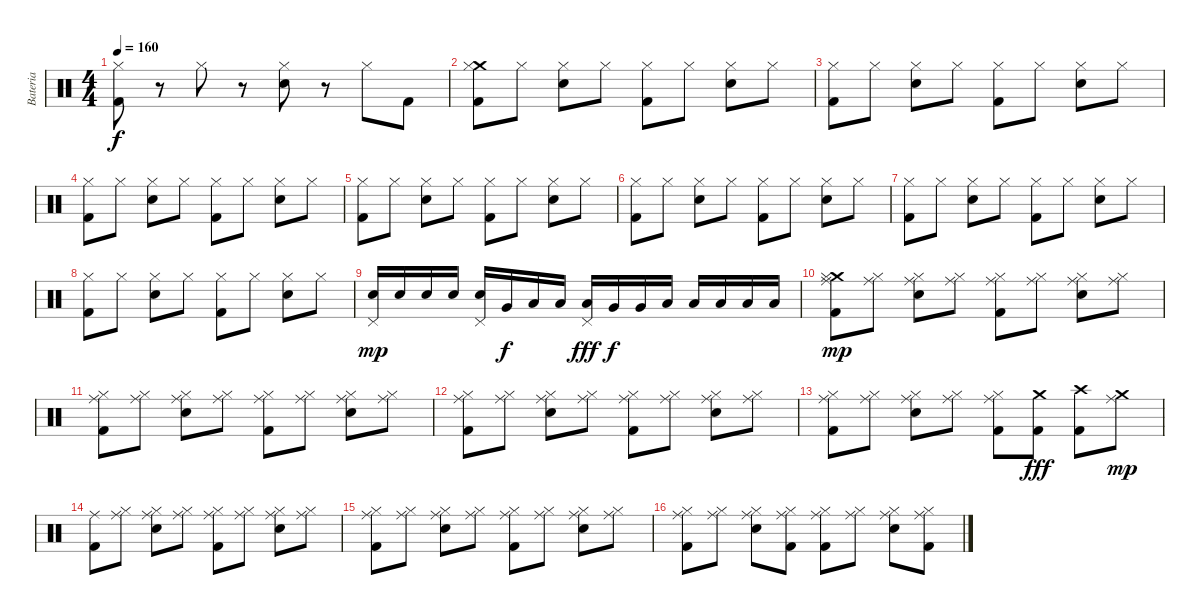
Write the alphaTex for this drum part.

\track ("Bateria" "Bateria") {instrument percussion}
\staff {score}
\articulation defaults
\ts (4 4)
\tempo 160
\clef neutral
\ks c
("Hi-Hat (closed)" "Kick (hit) 2").8{dy f} r.8 "Hi-Hat (closed)".8 r.8 ("Hi-Hat (closed)" "Electric Snare (hit)").8 r.8 "Hi-Hat (closed)".8 "Kick (hit) 2".8 |
("Crash medium (hit)" "Hi-Hat (closed)" "Kick (hit) 2").8 "Hi-Hat (closed)".8 ("Hi-Hat (closed)" "Electric Snare (hit)").8 "Hi-Hat (closed)".8 ("Hi-Hat (closed)" "Kick (hit) 2").8 "Hi-Hat (closed)".8 ("Hi-Hat (closed)" "Electric Snare (hit)").8 "Hi-Hat (closed)".8 |
("Hi-Hat (closed)" "Kick (hit) 2").8 "Hi-Hat (closed)".8 ("Hi-Hat (closed)" "Electric Snare (hit)").8 "Hi-Hat (closed)".8 ("Hi-Hat (closed)" "Kick (hit) 2").8 "Hi-Hat (closed)".8 ("Hi-Hat (closed)" "Electric Snare (hit)").8 "Hi-Hat (closed)".8 |
("Hi-Hat (closed)" "Kick (hit) 2").8 "Hi-Hat (closed)".8 ("Hi-Hat (closed)" "Electric Snare (hit)").8 "Hi-Hat (closed)".8 ("Hi-Hat (closed)" "Kick (hit) 2").8 "Hi-Hat (closed)".8 ("Hi-Hat (closed)" "Electric Snare (hit)").8 "Hi-Hat (closed)".8 |
("Hi-Hat (closed)" "Kick (hit) 2").8 "Hi-Hat (closed)".8 ("Hi-Hat (closed)" "Electric Snare (hit)").8 "Hi-Hat (closed)".8 ("Hi-Hat (closed)" "Kick (hit) 2").8 "Hi-Hat (closed)".8 ("Hi-Hat (closed)" "Electric Snare (hit)").8 "Hi-Hat (closed)".8 |
("Hi-Hat (closed)" "Kick (hit) 2").8 "Hi-Hat (closed)".8 ("Hi-Hat (closed)" "Electric Snare (hit)").8 "Hi-Hat (closed)".8 ("Hi-Hat (closed)" "Kick (hit) 2").8 "Hi-Hat (closed)".8 ("Hi-Hat (closed)" "Electric Snare (hit)").8 "Hi-Hat (closed)".8 |
("Hi-Hat (closed)" "Kick (hit) 2").8 "Hi-Hat (closed)".8 ("Hi-Hat (closed)" "Electric Snare (hit)").8 "Hi-Hat (closed)".8 ("Hi-Hat (closed)" "Kick (hit) 2").8 "Hi-Hat (closed)".8 ("Hi-Hat (closed)" "Electric Snare (hit)").8 "Hi-Hat (closed)".8 |
("Hi-Hat (closed)" "Kick (hit) 2").8 "Hi-Hat (closed)".8 ("Hi-Hat (closed)" "Electric Snare (hit)").8 "Hi-Hat (closed)".8 ("Hi-Hat (closed)" "Kick (hit) 2").8 "Hi-Hat (closed)".8 ("Hi-Hat (closed)" "Electric Snare (hit)").8 "Hi-Hat (closed)".8 |
("Pedal Hi-Hat (hit)" "Electric Snare (hit)").16{dy mp} "Electric Snare (hit)".16 "Electric Snare (hit)".16 "Electric Snare (hit)".16 ("Pedal Hi-Hat (hit)" "Electric Snare (hit)").16 "Very Low Tom (hit)".16{dy f} "Low Tom (hit)".16 "Low Tom (hit)".16 ("Pedal Hi-Hat (hit)" "Low Tom (hit)").16{dy fff} "Very Low Tom (hit)".16{dy f} "Very Low Tom (hit)".16 "Low Floor Tom (hit)".16 "Low Floor Tom (hit)".16 "Low Floor Tom (hit)".16 "Low Floor Tom (hit)".16 "Low Floor Tom (hit)".16 |
("Crash medium (hit)" "Hi-Hat (closed)" "Kick (hit) 2" "Ride (middle)").8{dy mp} ("Hi-Hat (closed)" "Ride (middle)").8 ("Hi-Hat (closed)" "Electric Snare (hit)" "Ride (middle)").8 ("Hi-Hat (closed)" "Ride (middle)").8 ("Hi-Hat (closed)" "Kick (hit) 2" "Ride (middle)").8 ("Hi-Hat (closed)" "Ride (middle)").8 ("Hi-Hat (closed)" "Electric Snare (hit)" "Ride (middle)").8 ("Hi-Hat (closed)" "Ride (middle)").8 |
("Hi-Hat (closed)" "Kick (hit) 2" "Ride (middle)").8 ("Hi-Hat (closed)" "Ride (middle)").8 ("Hi-Hat (closed)" "Electric Snare (hit)" "Ride (middle)").8 ("Hi-Hat (closed)" "Ride (middle)").8 ("Hi-Hat (closed)" "Kick (hit) 2" "Ride (middle)").8 ("Hi-Hat (closed)" "Ride (middle)").8 ("Hi-Hat (closed)" "Electric Snare (hit)" "Ride (middle)").8 ("Hi-Hat (closed)" "Ride (middle)").8 |
("Hi-Hat (closed)" "Kick (hit) 2" "Ride (middle)").8 ("Hi-Hat (closed)" "Ride (middle)").8 ("Hi-Hat (closed)" "Electric Snare (hit)" "Ride (middle)").8 ("Hi-Hat (closed)" "Ride (middle)").8 ("Hi-Hat (closed)" "Kick (hit) 2" "Ride (middle)").8 ("Hi-Hat (closed)" "Ride (middle)").8 ("Hi-Hat (closed)" "Electric Snare (hit)" "Ride (middle)").8 ("Hi-Hat (closed)" "Ride (middle)").8 |
("Hi-Hat (closed)" "Kick (hit) 2" "Ride (middle)").8 ("Hi-Hat (closed)" "Ride (middle)").8 ("Hi-Hat (closed)" "Electric Snare (hit)" "Ride (middle)").8 ("Hi-Hat (closed)" "Ride (middle)").8 ("Hi-Hat (closed)" "Kick (hit) 2" "Ride (middle)").8 ("Crash medium (hit)" "Kick (hit) 2").8{dy fff} ("Crash high (hit)" "Kick (hit) 2").8 ("Crash medium (hit)" "Ride (middle)").8{dy mp} |
("Kick (hit) 2" "Ride (middle)").8 ("Hi-Hat (closed)" "Ride (middle)").8 ("Hi-Hat (closed)" "Electric Snare (hit)" "Ride (middle)").8 ("Hi-Hat (closed)" "Ride (middle)").8 ("Hi-Hat (closed)" "Kick (hit) 2" "Ride (middle)").8 ("Hi-Hat (closed)" "Ride (middle)").8 ("Hi-Hat (closed)" "Electric Snare (hit)" "Ride (middle)").8 ("Hi-Hat (closed)" "Ride (middle)").8 |
("Hi-Hat (closed)" "Kick (hit) 2" "Ride (middle)").8 ("Hi-Hat (closed)" "Ride (middle)").8 ("Hi-Hat (closed)" "Electric Snare (hit)" "Ride (middle)").8 ("Hi-Hat (closed)" "Ride (middle)").8 ("Hi-Hat (closed)" "Kick (hit) 2" "Ride (middle)").8 ("Hi-Hat (closed)" "Ride (middle)").8 ("Hi-Hat (closed)" "Electric Snare (hit)" "Ride (middle)").8 ("Hi-Hat (closed)" "Ride (middle)").8 |
("Hi-Hat (closed)" "Kick (hit) 2" "Ride (middle)").8 ("Hi-Hat (closed)" "Ride (middle)").8 ("Hi-Hat (closed)" "Electric Snare (hit)" "Ride (middle)").8 ("Hi-Hat (closed)" "Kick (hit) 2" "Ride (middle)").8 ("Hi-Hat (closed)" "Kick (hit) 2" "Ride (middle)").8 ("Hi-Hat (closed)" "Ride (middle)").8 ("Hi-Hat (closed)" "Electric Snare (hit)" "Ride (middle)").8 ("Hi-Hat (closed)" "Kick (hit) 2" "Ride (middle)").8
